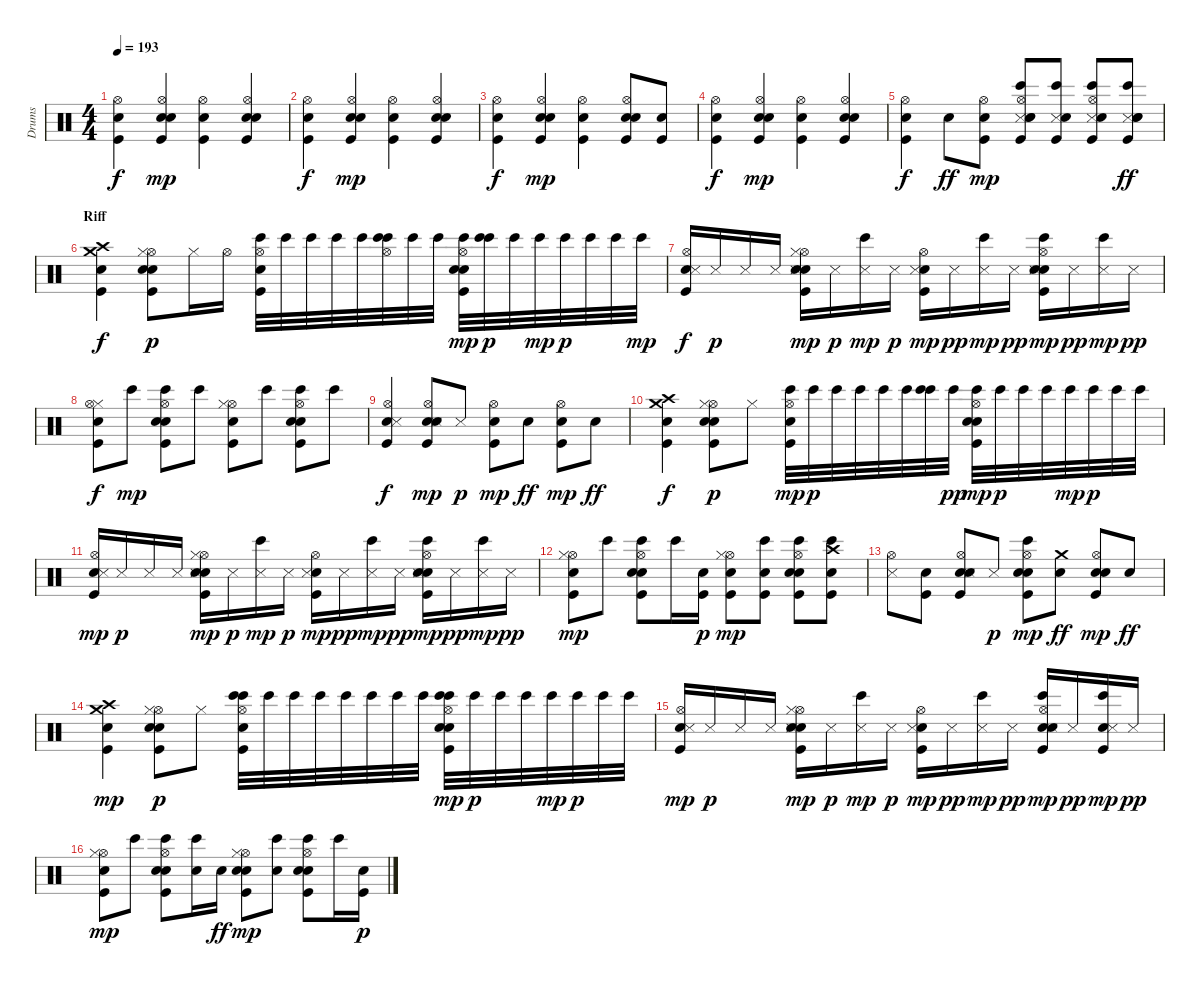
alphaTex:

\track ("Drums" "Drums") {instrument percussion}
\staff {score}
\articulation defaults
\ts (4 4)
\tempo 193
\clef neutral
\ks c
("Kick (hit)" "Snare (hit) 2" "Hi-Hat (open)").4{dy f} ("Kick (hit)" "Snare (hit) 2" "Electric Snare (hit)" "Hi-Hat (open)").4{dy mp} ("Kick (hit)" "Snare (hit) 2" "Hi-Hat (open)").4 ("Kick (hit)" "Snare (hit) 2" "Electric Snare (hit)" "Hi-Hat (open)").4 |
("Hi-Hat (open)" "Snare (hit) 2" "Kick (hit)").4{dy f} ("Kick (hit)" "Snare (hit) 2" "Electric Snare (hit)" "Hi-Hat (open)").4{dy mp} ("Kick (hit)" "Snare (hit) 2" "Hi-Hat (open)").4 ("Kick (hit)" "Snare (hit) 2" "Electric Snare (hit)" "Hi-Hat (open)").4 |
("Kick (hit)" "Snare (hit) 2" "Hi-Hat (open)").4{dy f} ("Kick (hit)" "Snare (hit) 2" "Electric Snare (hit)" "Hi-Hat (open)").4{dy mp} ("Kick (hit)" "Snare (hit) 2" "Hi-Hat (open)").4 ("Kick (hit)" "Snare (hit) 2" "Electric Snare (hit)" "Hi-Hat (open)").8 ("Kick (hit)" "Snare (hit) 2").8 |
("Kick (hit)" "Snare (hit) 2" "Hi-Hat (open)").4{dy f} ("Kick (hit)" "Snare (hit) 2" "Electric Snare (hit)" "Hi-Hat (open)").4{dy mp} ("Kick (hit)" "Snare (hit) 2" "Hi-Hat (open)").4 ("Kick (hit)" "Snare (hit) 2" "Electric Snare (hit)" "Hi-Hat (open)").4 |
("Hi-Hat (open)" "Kick (hit)" "Snare (hit) 2").4{dy f} "Electric Snare (hit)".8{dy ff} ("Kick (hit)" "Snare (hit) 2" "Hi-Hat (open)").8{dy mp} ("Bongo High (hit)" "Snare (side stick) 3" "Kick (hit)" "Snare (hit) 2" "Electric Snare (hit)" "Hi-Hat (open)").8 ("Bongo High (hit)" "Snare (side stick) 3" "Kick (hit)" "Snare (hit) 2").8 ("Bongo High (hit)" "Snare (side stick) 3" "Kick (hit)" "Snare (hit) 2" "Hi-Hat (open)").8 ("Bongo High (hit)" "Snare (side stick) 3" "Kick (hit)" "Snare (hit) 2" "Electric Snare (hit)").8{dy ff} |
\section ("" "Riff")
("Crash high (hit)" "Crash medium (hit)" "Kick (hit)" "Snare (hit) 2").4{dy f} ("Kick (hit)" "Snare (hit) 2" "Electric Snare (hit)" "Hi-Hat (open)" "Hi-Hat (closed)").8{dy p} "Hi-Hat (closed)".16 "Hi-Hat (open)".16 ("Kick (hit)" "Hi-Hat (open)" "Snare (hit) 2" "Bongo High (hit)").32 "Bongo High (hit)".32 "Bongo High (hit)".32 "Bongo High (hit)".32 "Bongo High (hit)".32 ("Bongo High (hit)" "Hi-Hat (open)" "Bongo High (hit)").32 "Bongo High (hit)".32 "Bongo High (hit)".32 ("Kick (hit)" "Snare (hit) 2" "Electric Snare (hit)" "Hi-Hat (open)" "Bongo High (hit)").32{dy mp} ("Bongo High (hit)" "Bongo High (hit)").32{dy p} "Bongo High (hit)".32 "Bongo High (hit)".32{dy mp} "Bongo High (hit)".32{dy p} "Bongo High (hit)".32 "Bongo High (hit)".32 "Bongo High (hit)".32{dy mp} |
("Hi-Hat (open)" "Snare (hit) 2" "Snare (side stick) 3" "Kick (hit)").16{dy f} "Snare (side stick) 3".16{dy p} "Snare (side stick) 3".16 "Snare (side stick) 3".16 ("Kick (hit)" "Snare (hit) 2" "Electric Snare (hit)" "Snare (side stick) 3" "Hi-Hat (open)" "Hi-Hat (closed)").16{dy mp} "Snare (side stick) 3".16{dy p} ("Snare (side stick) 3" "Bongo High (hit)").16{dy mp} "Snare (side stick) 3".16{dy p} ("Kick (hit)" "Snare (hit) 2" "Snare (side stick) 3" "Hi-Hat (open)").16{dy mp} "Snare (side stick) 3".16{dy pp} ("Snare (side stick) 3" "Bongo High (hit)").16{dy mp} "Snare (side stick) 3".16{dy pp} ("Kick (hit)" "Snare (hit) 2" "Electric Snare (hit)" "Snare (side stick) 3" "Hi-Hat (open)" "Bongo High (hit)").16{dy mp} "Snare (side stick) 3".16{dy pp} ("Snare (side stick) 3" "Bongo High (hit)").16{dy mp} "Snare (side stick) 3".16{dy pp} |
("Hi-Hat (closed)" "Kick (hit)" "Snare (hit) 2" "Hi-Hat (open)").8{dy f} "Bongo High (hit)".8{dy mp} ("Kick (hit)" "Snare (hit) 2" "Electric Snare (hit)" "Hi-Hat (open)" "Bongo High (hit)").8 "Bongo High (hit)".8 ("Kick (hit)" "Snare (hit) 2" "Hi-Hat (open)" "Hi-Hat (closed)").8 "Bongo High (hit)".8 ("Kick (hit)" "Snare (hit) 2" "Electric Snare (hit)" "Hi-Hat (open)" "Bongo High (hit)").8 "Bongo High (hit)".8 |
("Kick (hit)" "Snare (hit) 2" "Hi-Hat (open)" "Snare (side stick) 3").4{dy f} ("Kick (hit)" "Snare (hit) 2" "Electric Snare (hit)" "Snare (side stick) 3" "Hi-Hat (open)").8{dy mp} "Snare (side stick) 3".8{dy p} ("Kick (hit)" "Snare (hit) 2" "Hi-Hat (open)").8{dy mp} "Electric Snare (hit)".8{dy ff} ("Kick (hit)" "Snare (hit) 2" "Hi-Hat (open)").8{dy mp} "Electric Snare (hit)".8{dy ff} |
("Crash medium (hit)" "Crash high (hit)" "Kick (hit)" "Snare (hit) 2").4{dy f} ("Kick (hit)" "Snare (hit) 2" "Electric Snare (hit)" "Hi-Hat (open)" "Hi-Hat (closed)").8{dy p} "Hi-Hat (closed)".8 ("Kick (hit)" "Bongo High (hit)" "Snare (hit) 2" "Hi-Hat (open)").32{dy mp} "Bongo High (hit)".32{dy p} "Bongo High (hit)".32 "Bongo High (hit)".32 "Bongo High (hit)".32 "Bongo High (hit)".32 ("Bongo High (hit)" "Bongo High (hit)").32 "Bongo High (hit)".32{dy pp} ("Kick (hit)" "Snare (hit) 2" "Electric Snare (hit)" "Hi-Hat (open)" "Bongo High (hit)").32{dy mp} "Bongo High (hit)".32{dy p} "Bongo High (hit)".32 "Bongo High (hit)".32 "Bongo High (hit)".32{dy mp} "Bongo High (hit)".32{dy p} "Bongo High (hit)".32 "Bongo High (hit)".32 |
("Kick (hit)" "Snare (hit) 2" "Snare (side stick) 3" "Hi-Hat (open)").16{dy mp} "Snare (side stick) 3".16{dy p} "Snare (side stick) 3".16 "Snare (side stick) 3".16 ("Kick (hit)" "Snare (hit) 2" "Electric Snare (hit)" "Snare (side stick) 3" "Hi-Hat (open)" "Hi-Hat (closed)").16{dy mp} "Snare (side stick) 3".16{dy p} ("Snare (side stick) 3" "Bongo High (hit)").16{dy mp} "Snare (side stick) 3".16{dy p} ("Kick (hit)" "Snare (hit) 2" "Snare (side stick) 3" "Hi-Hat (open)").16{dy mp} "Snare (side stick) 3".16{dy pp} ("Snare (side stick) 3" "Bongo High (hit)").16{dy mp} "Snare (side stick) 3".16{dy pp} ("Kick (hit)" "Snare (hit) 2" "Electric Snare (hit)" "Snare (side stick) 3" "Hi-Hat (open)" "Bongo High (hit)").16{dy mp} "Snare (side stick) 3".16{dy pp} ("Snare (side stick) 3" "Bongo High (hit)").16{dy mp} "Snare (side stick) 3".16{dy pp} |
("Kick (hit)" "Snare (hit) 2" "Hi-Hat (open)" "Hi-Hat (closed)").8{dy mp} "Bongo High (hit)".8 ("Kick (hit)" "Snare (hit) 2" "Electric Snare (hit)" "Hi-Hat (open)" "Bongo High (hit)").8 "Bongo High (hit)".16 ("Kick (hit)" "Snare (hit) 2").16{dy p} ("Kick (hit)" "Snare (hit) 2" "Hi-Hat (open)" "Hi-Hat (closed)").8{dy mp} ("Kick (hit)" "Snare (hit) 2" "Bongo High (hit)").8 ("Kick (hit)" "Snare (hit) 2" "Electric Snare (hit)" "Hi-Hat (open)" "Bongo High (hit)").8 ("Crash high (hit)" "Kick (hit)" "Snare (hit) 2" "Bongo High (hit)").8 |
("Snare (side stick) 3" "Hi-Hat (open)").8 ("Kick (hit)" "Snare (hit) 2").8 ("Kick (hit)" "Snare (hit) 2" "Electric Snare (hit)" "Snare (side stick) 3" "Hi-Hat (open)").8 "Snare (side stick) 3".8{dy p} ("Bongo High (hit)" "Hand Clap (hit)" "Kick (hit)" "Snare (hit) 2" "Hi-Hat (open)").8{dy mp} ("Crash medium (hit)" "Electric Snare (hit)").8{dy ff} ("Kick (hit)" "Snare (hit) 2" "Electric Snare (hit)" "Hi-Hat (open)").8{dy mp} "Electric Snare (hit)".8{dy ff} |
("Crash medium (hit)" "Crash high (hit)" "Kick (hit)" "Snare (hit) 2").4{dy mp} ("Kick (hit)" "Snare (hit) 2" "Electric Snare (hit)" "Hi-Hat (open)" "Hi-Hat (closed)").8{dy p} "Hi-Hat (closed)".8 ("Kick (hit)" "Bongo High (hit)" "Snare (hit) 2" "Hi-Hat (open)" "Bongo High (hit)").32 "Bongo High (hit)".32 "Bongo High (hit)".32 "Bongo High (hit)".32 "Bongo High (hit)".32 "Bongo High (hit)".32 "Bongo High (hit)".32 "Bongo High (hit)".32 ("Bongo High (hit)" "Kick (hit)" "Snare (hit) 2" "Electric Snare (hit)" "Hi-Hat (open)" "Bongo High (hit)").32{dy mp} "Bongo High (hit)".32{dy p} "Bongo High (hit)".32 "Bongo High (hit)".32 "Bongo High (hit)".32{dy mp} "Bongo High (hit)".32{dy p} "Bongo High (hit)".32 "Bongo High (hit)".32 |
("Kick (hit)" "Snare (hit) 2" "Snare (side stick) 3" "Hi-Hat (open)").16{dy mp} "Snare (side stick) 3".16{dy p} "Snare (side stick) 3".16 "Snare (side stick) 3".16 ("Kick (hit)" "Snare (hit) 2" "Electric Snare (hit)" "Snare (side stick) 3" "Hi-Hat (open)" "Hi-Hat (closed)").16{dy mp} "Snare (side stick) 3".16{dy p} ("Snare (side stick) 3" "Bongo High (hit)").16{dy mp} "Snare (side stick) 3".16{dy p} ("Kick (hit)" "Snare (hit) 2" "Snare (side stick) 3" "Hi-Hat (open)").16{dy mp} "Snare (side stick) 3".16{dy pp} ("Snare (side stick) 3" "Bongo High (hit)").16{dy mp} "Snare (side stick) 3".16{dy pp} ("Kick (hit)" "Snare (hit) 2" "Electric Snare (hit)" "Snare (side stick) 3" "Hi-Hat (open)" "Bongo High (hit)").16{dy mp} "Snare (side stick) 3".16{dy pp} ("Kick (hit)" "Snare (hit) 2" "Snare (side stick) 3" "Bongo High (hit)").16{dy mp} "Snare (side stick) 3".16{dy pp} |
("Kick (hit)" "Snare (hit) 2" "Hi-Hat (open)" "Hi-Hat (closed)").8{dy mp} "Bongo High (hit)".8 ("Kick (hit)" "Snare (hit) 2" "Electric Snare (hit)" "Hi-Hat (open)" "Bongo High (hit)").8 ("Electric Snare (hit)" "Bongo High (hit)").16 "Electric Snare (hit)".16{dy ff} ("Kick (hit)" "Snare (hit) 2" "Electric Snare (hit)" "Hi-Hat (open)" "Hi-Hat (closed)").8{dy mp} ("Electric Snare (hit)" "Bongo High (hit)").8 ("Kick (hit)" "Snare (hit) 2" "Electric Snare (hit)" "Hi-Hat (open)" "Bongo High (hit)").8 "Bongo High (hit)".16 ("Kick (hit)" "Snare (hit) 2").16{dy p}
